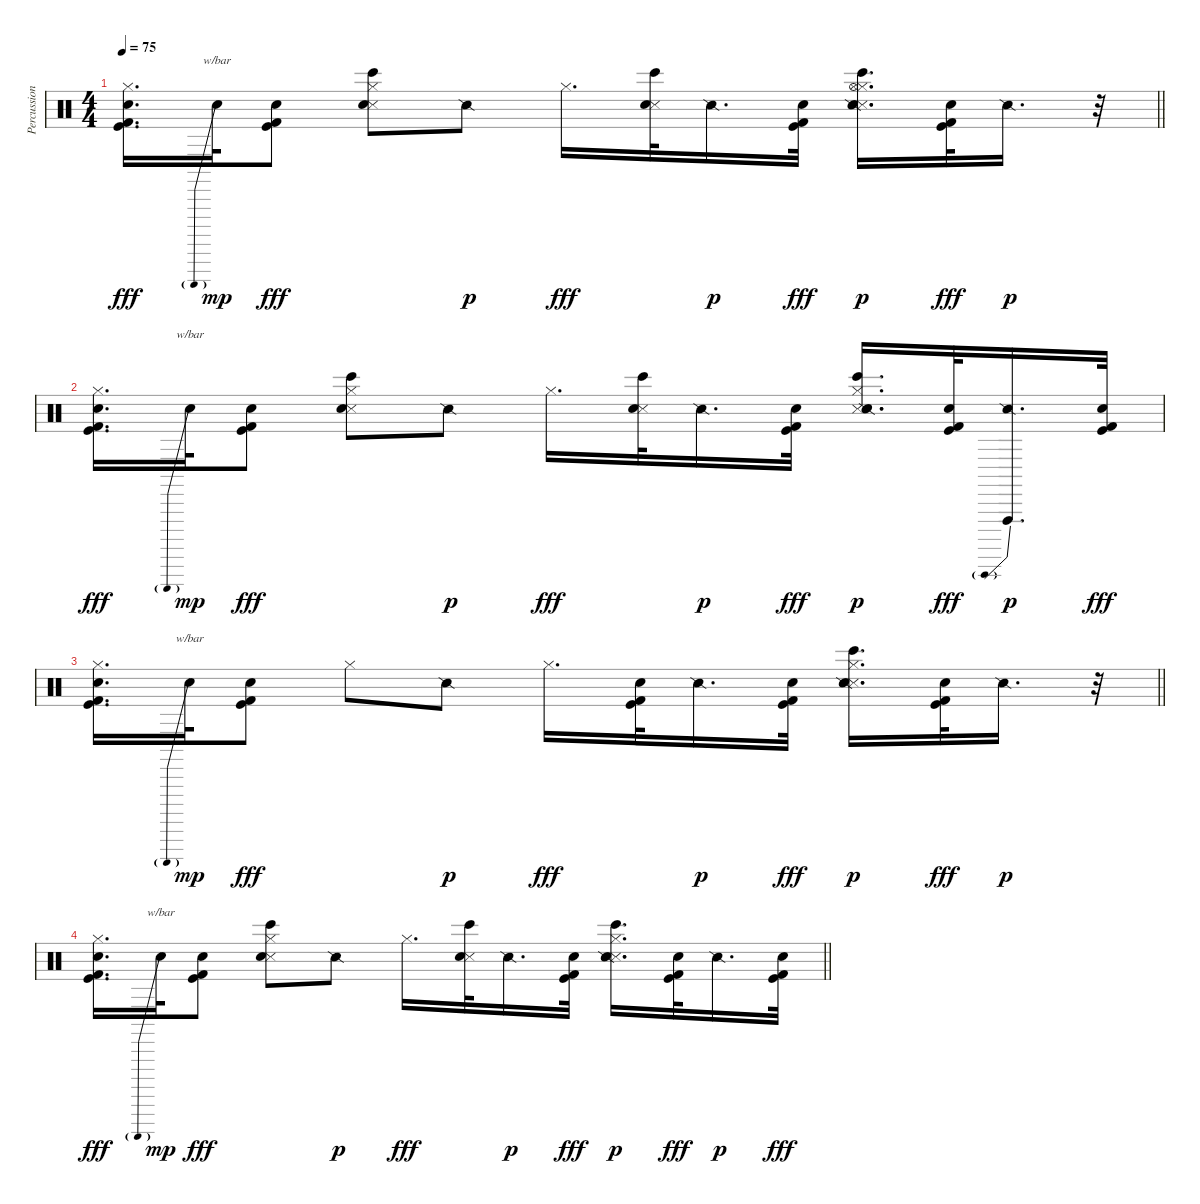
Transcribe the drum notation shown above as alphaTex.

\track ("Percussion" "Percussion") {instrument percussion}
\staff {score}
\articulation defaults
\ts (4 4)
\tempo 75
\clef neutral
\barLineRight lightlight
\ks c
("Hi-Hat (closed)" "Snare (hit) 2" "Kick (hit)" "Kick (hit) 2").16{d dy fff} "Hand Clap (hit)".32{tbe (predive default 0 24 60 24) dy mp} ("Snare (hit) 2" "Kick (hit)" "Kick (hit) 2").8{dy fff} ("Hi-Hat (closed)" "Snare (side stick) 3" "Snare (hit) 2" "Bongo High (hit)").8 "Snare (side stick) 2".8{dy p} "Hi-Hat (closed)".16{d dy fff} ("Snare (side stick) 3" "Snare (hit) 2" "Bongo High (hit)").32 "Snare (side stick) 2".16{d dy p} ("Snare (hit) 2" "Kick (hit)" "Kick (hit) 2").32{dy fff} ("Hi-Hat (closed)" "Snare (side stick) 3" "Snare (hit) 2" "Bongo High (hit)" "Snare (side stick) 2" "Hi-Hat (open)").16{d dy p} ("Snare (hit) 2" "Kick (hit)" "Kick (hit) 2").32{dy fff} "Snare (side stick) 2".16{d dy p} r.32 |
("Hi-Hat (closed)" "Snare (hit) 2" "Kick (hit)" "Kick (hit) 2").16{d dy fff} "Hand Clap (hit)".32{tbe (predive default 0 24 60 24) dy mp} ("Snare (hit) 2" "Kick (hit)" "Kick (hit) 2").8{dy fff} ("Hi-Hat (closed)" "Snare (side stick) 3" "Snare (hit) 2" "Bongo High (hit)").8 "Snare (side stick) 2".8{dy p} "Hi-Hat (closed)".16{d dy fff} ("Snare (side stick) 3" "Snare (hit) 2" "Bongo High (hit)").32 "Snare (side stick) 2".16{d dy p} ("Snare (hit) 2" "Kick (hit)" "Kick (hit) 2").32{dy fff} ("Hi-Hat (closed)" "Snare (side stick) 3" "Snare (hit) 2" "Bongo High (hit)" "Snare (side stick) 2").16{d dy p} ("Snare (hit) 2" "Kick (hit)" "Kick (hit) 2").32{dy fff} ("Snare (side stick) 2" "Vibraslap (hit)"{be (prebend 0 12 60 12)}).16{d dy p} ("Snare (hit) 2" "Kick (hit)" "Kick (hit) 2").32{dy fff} |
\barLineRight lightlight
("Hi-Hat (closed)" "Snare (hit) 2" "Kick (hit)" "Kick (hit) 2").16{d} "Hand Clap (hit)".32{tbe (predive default 0 24 60 24) dy mp} ("Snare (hit) 2" "Kick (hit)" "Kick (hit) 2").8{dy fff} "Hi-Hat (closed)".8 "Snare (side stick) 2".8{dy p} "Hi-Hat (closed)".16{d dy fff} ("Snare (hit) 2" "Kick (hit)" "Kick (hit) 2").32 "Snare (side stick) 2".16{d dy p} ("Snare (hit) 2" "Kick (hit)" "Kick (hit) 2").32{dy fff} ("Hi-Hat (closed)" "Snare (side stick) 3" "Snare (hit) 2" "Bongo High (hit)" "Snare (side stick) 2").16{d dy p} ("Snare (hit) 2" "Kick (hit)" "Kick (hit) 2").32{dy fff} "Snare (side stick) 2".16{d dy p} r.32 |
\barLineRight lightlight
("Hi-Hat (closed)" "Snare (hit) 2" "Kick (hit)" "Kick (hit) 2").16{d dy fff} "Hand Clap (hit)".32{tbe (predive default 0 24 60 24) dy mp} ("Snare (hit) 2" "Kick (hit)" "Kick (hit) 2").8{dy fff} ("Hi-Hat (closed)" "Snare (side stick) 3" "Snare (hit) 2" "Bongo High (hit)").8 "Snare (side stick) 2".8{dy p} "Hi-Hat (closed)".16{d dy fff} ("Snare (side stick) 3" "Snare (hit) 2" "Bongo High (hit)").32 "Snare (side stick) 2".16{d dy p} ("Snare (hit) 2" "Kick (hit)" "Kick (hit) 2").32{dy fff} ("Hi-Hat (closed)" "Snare (side stick) 3" "Snare (hit) 2" "Bongo High (hit)" "Snare (side stick) 2").16{d dy p} ("Snare (hit) 2" "Kick (hit)" "Kick (hit) 2").32{dy fff} "Snare (side stick) 2".16{d dy p} ("Snare (hit) 2" "Kick (hit)" "Kick (hit) 2").32{dy fff}
